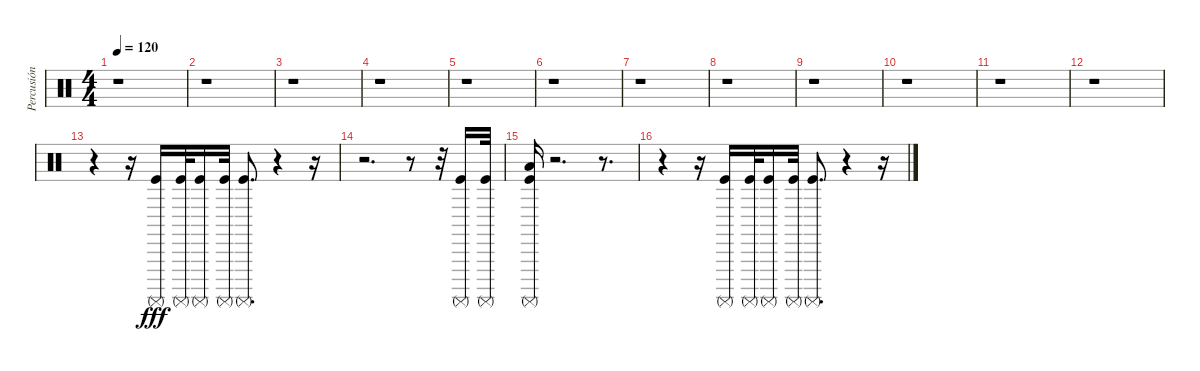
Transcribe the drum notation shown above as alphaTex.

\track ("Percusión" "Percusión") {instrument percussion}
\staff {score}
\articulation defaults
\ts (4 4)
\tempo 120
\clef neutral
\ks c
r.1{dy f} |
r.1 |
r.1 |
r.1 |
r.1 |
r.1 |
r.1 |
r.1 |
r.1 |
r.1 |
r.1 |
r.1 |
r.4 r.16 ("Surdo (mute)" "Kick (hit)").16{dy fff} ("Surdo (mute)" "Kick (hit)").32 ("Surdo (mute)" "Kick (hit)").16 ("Surdo (mute)" "Kick (hit)").32 ("Surdo (mute)" "Kick (hit)").8{d} r.4 r.16 |
r.2{d} r.8 r.32 ("Surdo (mute)" "Kick (hit)").16 ("Surdo (mute)" "Kick (hit)").32 |
("Kick (hit)" "Surdo (mute)" "Low Tom (hit)").16 r.2{d} r.8{d} |
r.4 r.16 ("Surdo (mute)" "Kick (hit)").16 ("Surdo (mute)" "Kick (hit)").32 ("Surdo (mute)" "Kick (hit)").16 ("Surdo (mute)" "Kick (hit)").32 ("Surdo (mute)" "Kick (hit)").8{d} r.4 r.16
